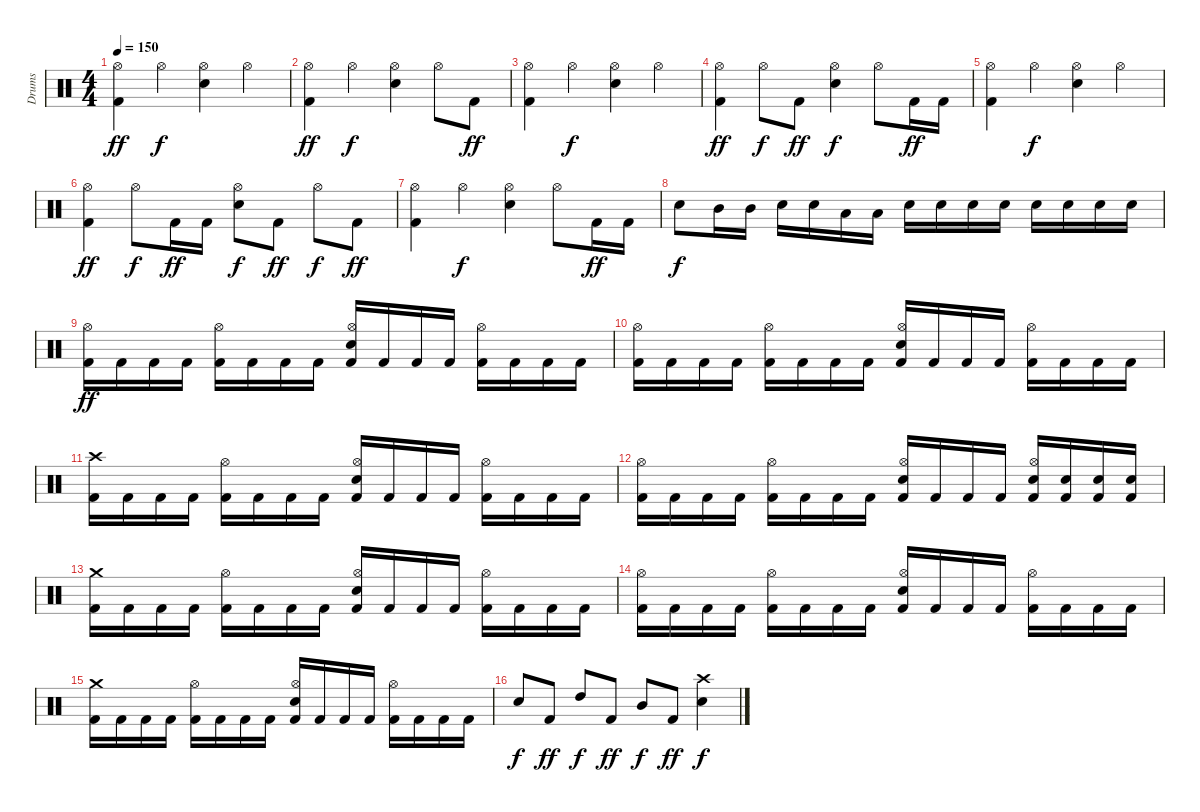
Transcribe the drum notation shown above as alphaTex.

\track ("Drums" "Drums") {instrument percussion}
\staff {score}
\articulation defaults
\ts (4 4)
\tempo 150
\clef neutral
\ks c
("Kick (hit) 2" "Hi-Hat (open)").4{dy ff} "Hi-Hat (open)".4{dy f} ("Snare (hit) 2" "Hi-Hat (open)").4 "Hi-Hat (open)".4 |
("Kick (hit) 2" "Hi-Hat (open)").4{dy ff} "Hi-Hat (open)".4{dy f} ("Snare (hit) 2" "Hi-Hat (open)").4 "Hi-Hat (open)".8 "Kick (hit) 2".8{dy ff} |
("Kick (hit) 2" "Hi-Hat (open)").4 "Hi-Hat (open)".4{dy f} ("Snare (hit) 2" "Hi-Hat (open)").4 "Hi-Hat (open)".4 |
("Kick (hit) 2" "Hi-Hat (open)").4{dy ff} "Hi-Hat (open)".8{dy f} "Kick (hit) 2".8{dy ff} ("Snare (hit) 2" "Hi-Hat (open)").4{dy f} "Hi-Hat (open)".8 "Kick (hit) 2".16{dy ff} "Kick (hit) 2".16 |
("Kick (hit) 2" "Hi-Hat (open)").4 "Hi-Hat (open)".4{dy f} ("Snare (hit) 2" "Hi-Hat (open)").4 "Hi-Hat (open)".4 |
("Kick (hit) 2" "Hi-Hat (open)").4{dy ff} "Hi-Hat (open)".8{dy f} "Kick (hit) 2".16{dy ff} "Kick (hit) 2".16 ("Snare (hit) 2" "Hi-Hat (open)").8{dy f} "Kick (hit) 2".8{dy ff} "Hi-Hat (open)".8{dy f} "Kick (hit) 2".8{dy ff} |
("Kick (hit) 2" "Hi-Hat (open)").4 "Hi-Hat (open)".4{dy f} ("Snare (hit) 2" "Hi-Hat (open)").4 "Hi-Hat (open)".8 "Kick (hit) 2".16{dy ff} "Kick (hit) 2".16 |
"Snare (hit) 2".8{dy f} "Mid Tom (hit)".16 "Mid Tom (hit)".16 "Snare (hit) 2".16 "Snare (hit) 2".16 "Low Tom (hit)".16 "Low Tom (hit)".16 "Snare (hit) 2".16 "Snare (hit) 2".16 "Snare (hit) 2".16 "Snare (hit) 2".16 "Snare (hit) 2".16 "Snare (hit) 2".16 "Snare (hit) 2".16 "Snare (hit) 2".16 |
("Kick (hit) 2" "Hi-Hat (open)").16{dy ff} "Kick (hit) 2".16 "Kick (hit) 2".16 "Kick (hit) 2".16 ("Kick (hit) 2" "Hi-Hat (open)").16 "Kick (hit) 2".16 "Kick (hit) 2".16 "Kick (hit) 2".16 ("Snare (hit) 2" "Kick (hit) 2" "Hi-Hat (open)").16 "Kick (hit) 2".16 "Kick (hit) 2".16 "Kick (hit) 2".16 ("Kick (hit) 2" "Hi-Hat (open)").16 "Kick (hit) 2".16 "Kick (hit) 2".16 "Kick (hit) 2".16 |
("Kick (hit) 2" "Hi-Hat (open)").16 "Kick (hit) 2".16 "Kick (hit) 2".16 "Kick (hit) 2".16 ("Kick (hit) 2" "Hi-Hat (open)").16 "Kick (hit) 2".16 "Kick (hit) 2".16 "Kick (hit) 2".16 ("Snare (hit) 2" "Kick (hit) 2" "Hi-Hat (open)").16 "Kick (hit) 2".16 "Kick (hit) 2".16 "Kick (hit) 2".16 ("Kick (hit) 2" "Hi-Hat (open)").16 "Kick (hit) 2".16 "Kick (hit) 2".16 "Kick (hit) 2".16 |
("Crash high (hit)" "Kick (hit) 2").16 "Kick (hit) 2".16 "Kick (hit) 2".16 "Kick (hit) 2".16 ("Kick (hit) 2" "Hi-Hat (open)").16 "Kick (hit) 2".16 "Kick (hit) 2".16 "Kick (hit) 2".16 ("Snare (hit) 2" "Kick (hit) 2" "Hi-Hat (open)").16 "Kick (hit) 2".16 "Kick (hit) 2".16 "Kick (hit) 2".16 ("Kick (hit) 2" "Hi-Hat (open)").16 "Kick (hit) 2".16 "Kick (hit) 2".16 "Kick (hit) 2".16 |
("Kick (hit) 2" "Hi-Hat (open)").16 "Kick (hit) 2".16 "Kick (hit) 2".16 "Kick (hit) 2".16 ("Kick (hit) 2" "Hi-Hat (open)").16 "Kick (hit) 2".16 "Kick (hit) 2".16 "Kick (hit) 2".16 ("Snare (hit) 2" "Kick (hit) 2" "Hi-Hat (open)").16 "Kick (hit) 2".16 "Kick (hit) 2".16 "Kick (hit) 2".16 ("Snare (hit) 2" "Kick (hit) 2" "Hi-Hat (open)").16 ("Snare (hit) 2" "Kick (hit) 2").16 ("Snare (hit) 2" "Kick (hit) 2").16 ("Snare (hit) 2" "Kick (hit) 2").16 |
("Crash medium (hit)" "Kick (hit) 2").16 "Kick (hit) 2".16 "Kick (hit) 2".16 "Kick (hit) 2".16 ("Kick (hit) 2" "Hi-Hat (open)").16 "Kick (hit) 2".16 "Kick (hit) 2".16 "Kick (hit) 2".16 ("Snare (hit) 2" "Kick (hit) 2" "Hi-Hat (open)").16 "Kick (hit) 2".16 "Kick (hit) 2".16 "Kick (hit) 2".16 ("Kick (hit) 2" "Hi-Hat (open)").16 "Kick (hit) 2".16 "Kick (hit) 2".16 "Kick (hit) 2".16 |
("Kick (hit) 2" "Hi-Hat (open)").16 "Kick (hit) 2".16 "Kick (hit) 2".16 "Kick (hit) 2".16 ("Kick (hit) 2" "Hi-Hat (open)").16 "Kick (hit) 2".16 "Kick (hit) 2".16 "Kick (hit) 2".16 ("Snare (hit) 2" "Kick (hit) 2" "Hi-Hat (open)").16 "Kick (hit) 2".16 "Kick (hit) 2".16 "Kick (hit) 2".16 ("Kick (hit) 2" "Hi-Hat (open)").16 "Kick (hit) 2".16 "Kick (hit) 2".16 "Kick (hit) 2".16 |
("Crash medium (hit)" "Kick (hit) 2").16 "Kick (hit) 2".16 "Kick (hit) 2".16 "Kick (hit) 2".16 ("Kick (hit) 2" "Hi-Hat (open)").16 "Kick (hit) 2".16 "Kick (hit) 2".16 "Kick (hit) 2".16 ("Snare (hit) 2" "Kick (hit) 2" "Hi-Hat (open)").16 "Kick (hit) 2".16 "Kick (hit) 2".16 "Kick (hit) 2".16 ("Kick (hit) 2" "Hi-Hat (open)").16 "Kick (hit) 2".16 "Kick (hit) 2".16 "Kick (hit) 2".16 |
"Snare (hit) 2".8{dy f} "Kick (hit) 2".8{dy ff} "High Tom (hit)".8{dy f} "Kick (hit) 2".8{dy ff} "Mid Tom (hit)".8{dy f} "Kick (hit) 2".8{dy ff} ("Crash high (hit)" "Snare (hit) 2").4{dy f}
